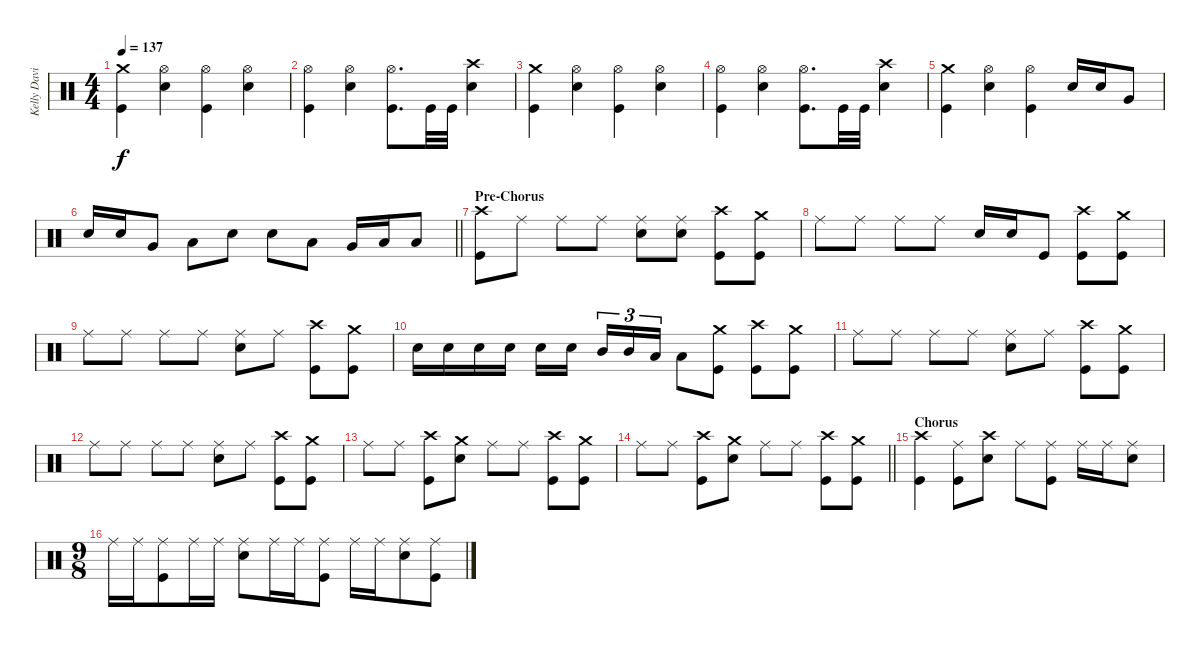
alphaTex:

\track ("Kelly David Smith" "Kelly Davi") {instrument percussion}
\staff {score}
\articulation defaults
\ts (4 4)
\tempo 137
\clef neutral
\ks c
("Crash medium (hit)" "Kick (hit)").4{dy f} ("Hi-Hat (open)" "Electric Snare (hit)").4 ("Hi-Hat (open)" "Kick (hit)").4 ("Hi-Hat (open)" "Electric Snare (hit)").4 |
("Hi-Hat (open)" "Kick (hit)").4 ("Hi-Hat (open)" "Electric Snare (hit)").4 ("Hi-Hat (open)" "Kick (hit)").8{d} "Kick (hit)".32 "Kick (hit)".32 ("Crash high (hit)" "Electric Snare (hit)").4 |
("Crash medium (hit)" "Kick (hit)").4 ("Hi-Hat (open)" "Electric Snare (hit)").4 ("Hi-Hat (open)" "Kick (hit)").4 ("Hi-Hat (open)" "Electric Snare (hit)").4 |
("Hi-Hat (open)" "Kick (hit)").4 ("Hi-Hat (open)" "Electric Snare (hit)").4 ("Hi-Hat (open)" "Kick (hit)").8{d} "Kick (hit)".32 "Kick (hit)".32 ("Crash high (hit)" "Electric Snare (hit)").4 |
("Crash medium (hit)" "Kick (hit)").4 ("Hi-Hat (open)" "Electric Snare (hit)").4 ("Hi-Hat (open)" "Kick (hit)").4 "Electric Snare (hit)".16 "Electric Snare (hit)".16 "Very Low Tom (hit)".8 |
\barLineRight lightlight "Electric Snare (hit)".16 "Electric Snare (hit)".16 "Very Low Tom (hit)".8 "Low Floor Tom (hit)".8 "Electric Snare (hit)".8 "Electric Snare (hit)".8 "Low Tom (hit)".8 "Very Low Tom (hit)".16 "Low Floor Tom (hit)".16 "Low Floor Tom (hit)".8
|
\section ("" "Pre-Chorus")
("Crash high (hit)" "Kick (hit)").8 "Ride (middle)".8 "Ride (middle)".8 "Ride (middle)".8 ("Ride (middle)" "Electric Snare (hit)").8 ("Ride (middle)" "Electric Snare (hit)").8 ("Crash high (hit)" "Kick (hit)").8 ("Crash medium (hit)" "Kick (hit)").8 |
"Ride (middle)".8 "Ride (middle)".8 "Ride (middle)".8 "Ride (middle)".8 "Electric Snare (hit)".16 "Electric Snare (hit)".16 "Kick (hit)".8 ("Crash high (hit)" "Kick (hit)").8 ("Crash medium (hit)" "Kick (hit)").8 |
"Ride (middle)".8 "Ride (middle)".8 "Ride (middle)".8 "Ride (middle)".8 ("Ride (middle)" "Electric Snare (hit)").8 "Ride (middle)".8 ("Crash high (hit)" "Kick (hit)").8 ("Crash medium (hit)" "Kick (hit)").8 |
"Electric Snare (hit)".16 "Electric Snare (hit)".16 "Electric Snare (hit)".16 "Electric Snare (hit)".16 "Electric Snare (hit)".16 "Electric Snare (hit)".16{beam splitsecondary} "Mid Tom (hit)".16{tu (3 2)} "Mid Tom (hit)".16{tu (3 2)} "Low Tom (hit)".16{tu (3 2)} "Low Tom (hit)".8 ("Crash medium (hit)" "Kick (hit)").8 ("Crash high (hit)" "Kick (hit)").8 ("Crash medium (hit)" "Kick (hit)").8 |
"Ride (middle)".8 "Ride (middle)".8 "Ride (middle)".8 "Ride (middle)".8 ("Ride (middle)" "Electric Snare (hit)").8 "Ride (middle)".8 ("Crash high (hit)" "Kick (hit)").8 ("Crash medium (hit)" "Kick (hit)").8 |
"Ride (middle)".8 "Ride (middle)".8 "Ride (middle)".8 "Ride (middle)".8 ("Ride (middle)" "Electric Snare (hit)").8 "Ride (middle)".8 ("Crash high (hit)" "Kick (hit)").8 ("Crash medium (hit)" "Kick (hit)").8 |
"Ride (middle)".8 "Ride (middle)".8 ("Crash high (hit)" "Kick (hit)").8 ("Crash medium (hit)" "Electric Snare (hit)").8 "Ride (middle)".8 "Ride (middle)".8 ("Crash high (hit)" "Kick (hit)").8 ("Crash medium (hit)" "Kick (hit)").8 |
\barLineRight lightlight "Ride (middle)".8 "Ride (middle)".8
("Crash high (hit)" "Kick (hit)").8 ("Crash medium (hit)" "Electric Snare (hit)").8 "Ride (middle)".8 "Ride (middle)".8 ("Crash high (hit)" "Kick (hit)").8 ("Crash medium (hit)" "Kick (hit)").8 |
\section ("" "Chorus")
("Crash high (hit)" "Kick (hit)").4 ("Ride (middle)" "Kick (hit)").8 ("Crash high (hit)" "Electric Snare (hit)").8 "Ride (middle)".8 ("Ride (middle)" "Kick (hit)").8 "Ride (middle)".16 "Ride (middle)".16 ("Ride (middle)" "Electric Snare (hit)").8 |
\ts (9 8)
"Ride (middle)".16 "Ride (middle)".16 ("Ride (middle)" "Kick (hit)").8 "Ride (middle)".16 "Ride (middle)".16 ("Ride (middle)" "Electric Snare (hit)").8 "Ride (middle)".16 "Ride (middle)".16 ("Ride (middle)" "Kick (hit)").8 "Ride (middle)".16 "Ride (middle)".16 ("Ride (middle)" "Electric Snare (hit)").8 ("Ride (middle)" "Kick (hit)").8
